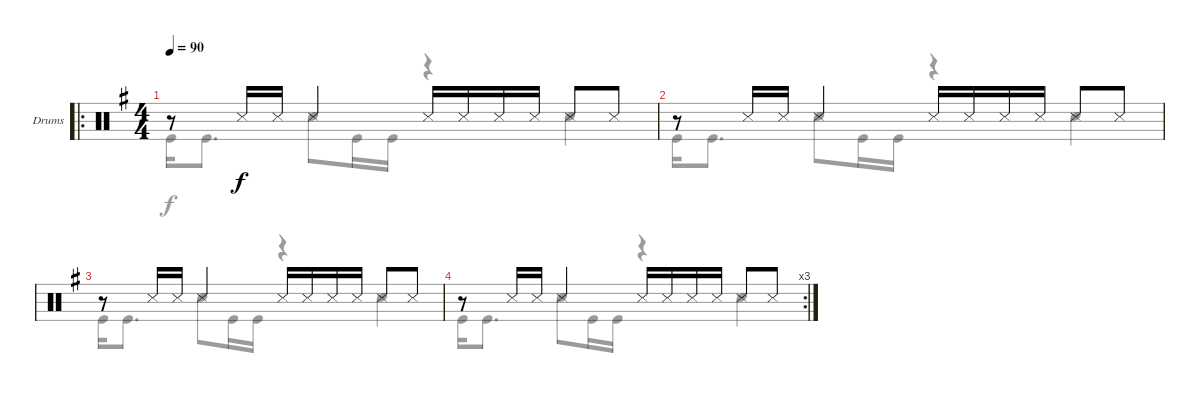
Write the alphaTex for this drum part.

\bracketExtendMode groupsimilarinstruments
\firstSystemTrackNameOrientation horizontal
\otherSystemsTrackNameOrientation horizontal
\track ("Drumkit" "Drums") {instrument percussion}
\staff {score}
\articulation defaults
\voice
\ro
\ts (4 4)
\tempo 90
\clef neutral
\ks g
r.8{dy f} "Snare (side stick) 3".16 "Snare (side stick) 3".16 "Snare (side stick) 3".4 "Snare (side stick) 3".16 "Snare (side stick) 3".16 "Snare (side stick) 3".16 "Snare (side stick) 3".16 "Snare (side stick) 3".8 "Snare (side stick) 3".8 |
r.8 "Snare (side stick) 3".16 "Snare (side stick) 3".16 "Snare (side stick) 3".4 "Snare (side stick) 3".16 "Snare (side stick) 3".16 "Snare (side stick) 3".16 "Snare (side stick) 3".16 "Snare (side stick) 3".8 "Snare (side stick) 3".8 |
r.8 "Snare (side stick) 3".16 "Snare (side stick) 3".16 "Snare (side stick) 3".4 "Snare (side stick) 3".16 "Snare (side stick) 3".16 "Snare (side stick) 3".16 "Snare (side stick) 3".16 "Snare (side stick) 3".8 "Snare (side stick) 3".8 |
\rc 3
r.8 "Snare (side stick) 3".16 "Snare (side stick) 3".16 "Snare (side stick) 3".4 "Snare (side stick) 3".16 "Snare (side stick) 3".16 "Snare (side stick) 3".16 "Snare (side stick) 3".16 "Snare (side stick) 3".8 "Snare (side stick) 3".8
\voice
\clef neutral
\ottava regular
\simile none
\ks g "Kick (hit)".16{dy f} "Kick (hit)".8{d} "Snare (hit) 2".8 "Kick (hit)".16 "Kick (hit)".16
r.4 "Snare (hit) 2".4 |
"Kick (hit)".16 "Kick (hit)".8{d} "Snare (hit) 2".8 "Kick (hit)".16 "Kick (hit)".16 r.4 "Snare (hit) 2".4 |
"Kick (hit)".16 "Kick (hit)".8{d} "Snare (hit) 2".8 "Kick (hit)".16 "Kick (hit)".16 r.4 "Snare (hit) 2".4 |
"Kick (hit)".16 "Kick (hit)".8{d} "Snare (hit) 2".8 "Kick (hit)".16 "Kick (hit)".16 r.4 "Snare (hit) 2".4
